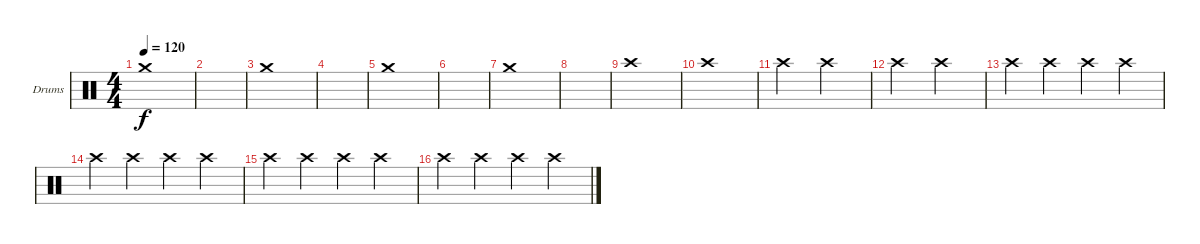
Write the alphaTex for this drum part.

\defaultSystemsLayout 4
\bracketExtendMode groupsimilarinstruments
\firstSystemTrackNameOrientation horizontal
\otherSystemsTrackNameOrientation horizontal
\track ("Drumkit" "Drums") {instrument percussion}
\staff {score}
\articulation defaults
\ts (4 4)
\tempo 120
\clef neutral
\ks c "Crash medium (hit)".1{dy f}
|
|
"Crash medium (hit)".1 |
|
"Crash medium (hit)".1 |
|
"Crash medium (hit)".1 |
|
"Crash high (hit)".1 |
"Crash high (hit)".1 |
"Crash high (hit)".2 "Crash high (hit)".2 |
"Crash high (hit)".2 "Crash high (hit)".2 |
"Crash high (hit)".4 "Crash high (hit)".4 "Crash high (hit)".4 "Crash high (hit)".4 |
"Crash high (hit)".4 "Crash high (hit)".4 "Crash high (hit)".4 "Crash high (hit)".4 |
"Crash high (hit)".4 "Crash high (hit)".4 "Crash high (hit)".4 "Crash high (hit)".4 |
"Crash high (hit)".4 "Crash high (hit)".4 "Crash high (hit)".4 "Crash high (hit)".4
